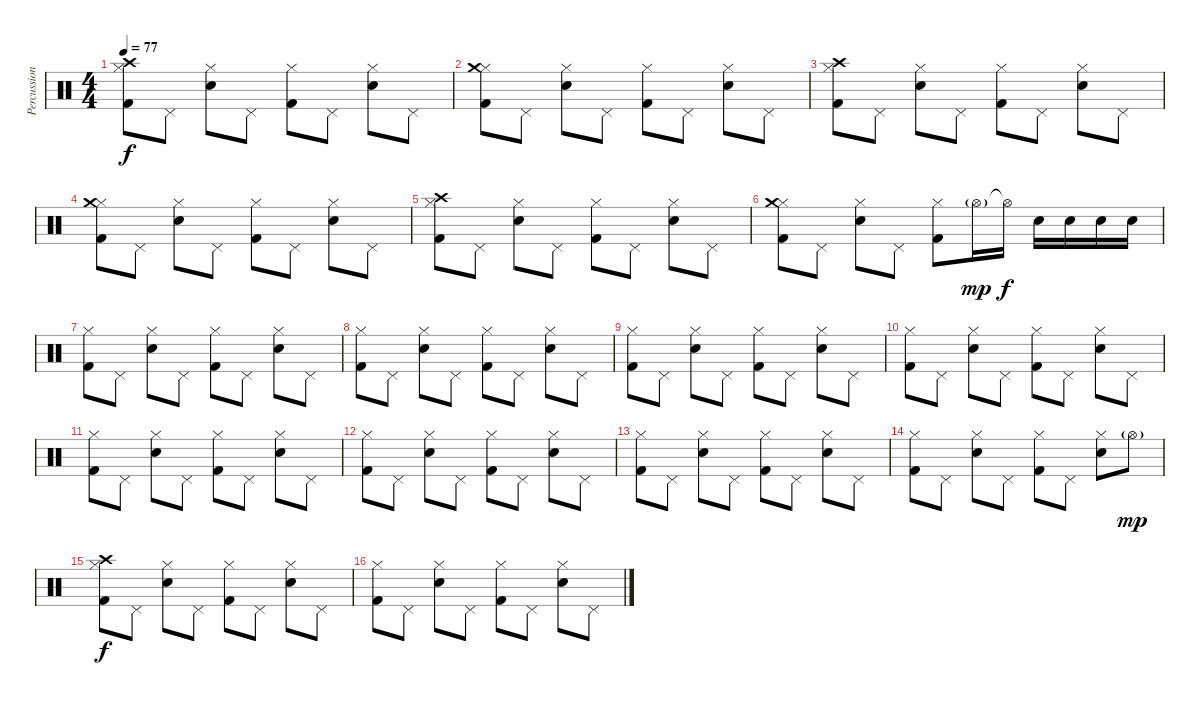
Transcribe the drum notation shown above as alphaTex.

\track ("Percussions" "Percussion") {instrument percussion}
\staff {score}
\articulation defaults
\ts (4 4)
\tempo 77
\clef neutral
\ks c
("Hi-Hat (closed)" "Crash high (hit)" "Kick (hit) 2").8{dy f} "Pedal Hi-Hat (hit)".8 ("Hi-Hat (closed)" "Snare (hit) 2").8 "Pedal Hi-Hat (hit)".8 ("Hi-Hat (closed)" "Kick (hit) 2").8 "Pedal Hi-Hat (hit)".8 ("Hi-Hat (closed)" "Snare (hit) 2").8 "Pedal Hi-Hat (hit)".8 |
("Hi-Hat (closed)" "Crash medium (hit)" "Kick (hit) 2").8 "Pedal Hi-Hat (hit)".8 ("Hi-Hat (closed)" "Snare (hit) 2").8 "Pedal Hi-Hat (hit)".8 ("Hi-Hat (closed)" "Kick (hit) 2").8 "Pedal Hi-Hat (hit)".8 ("Hi-Hat (closed)" "Snare (hit) 2").8 "Pedal Hi-Hat (hit)".8 |
("Hi-Hat (closed)" "Crash high (hit)" "Kick (hit) 2").8 "Pedal Hi-Hat (hit)".8 ("Hi-Hat (closed)" "Snare (hit) 2").8 "Pedal Hi-Hat (hit)".8 ("Hi-Hat (closed)" "Kick (hit) 2").8 "Pedal Hi-Hat (hit)".8 ("Hi-Hat (closed)" "Snare (hit) 2").8 "Pedal Hi-Hat (hit)".8 |
("Hi-Hat (closed)" "Crash medium (hit)" "Kick (hit) 2").8 "Pedal Hi-Hat (hit)".8 ("Hi-Hat (closed)" "Snare (hit) 2").8 "Pedal Hi-Hat (hit)".8 ("Hi-Hat (closed)" "Kick (hit) 2").8 "Pedal Hi-Hat (hit)".8 ("Hi-Hat (closed)" "Snare (hit) 2").8 "Pedal Hi-Hat (hit)".8 |
("Hi-Hat (closed)" "Crash high (hit)" "Kick (hit) 2").8 "Pedal Hi-Hat (hit)".8 ("Hi-Hat (closed)" "Snare (hit) 2").8 "Pedal Hi-Hat (hit)".8 ("Hi-Hat (closed)" "Kick (hit) 2").8 "Pedal Hi-Hat (hit)".8 ("Hi-Hat (closed)" "Snare (hit) 2").8 "Pedal Hi-Hat (hit)".8 |
("Hi-Hat (closed)" "Crash medium (hit)" "Kick (hit) 2").8 "Pedal Hi-Hat (hit)".8 ("Hi-Hat (closed)" "Snare (hit) 2").8 "Pedal Hi-Hat (hit)".8 ("Hi-Hat (closed)" "Kick (hit) 2").8 "Hi-Hat (open)"{g}.16{dy mp} "Hi-Hat (open)"{t}.16{dy f} "Snare (hit) 2".16 "Snare (hit) 2".16 "Snare (hit) 2".16 "Snare (hit) 2".16 |
("Hi-Hat (closed)" "Kick (hit) 2").8 "Pedal Hi-Hat (hit)".8 ("Hi-Hat (closed)" "Snare (hit) 2").8 "Pedal Hi-Hat (hit)".8 ("Hi-Hat (closed)" "Kick (hit) 2").8 "Pedal Hi-Hat (hit)".8 ("Hi-Hat (closed)" "Snare (hit) 2").8 "Pedal Hi-Hat (hit)".8 |
("Hi-Hat (closed)" "Kick (hit) 2").8 "Pedal Hi-Hat (hit)".8 ("Hi-Hat (closed)" "Snare (hit) 2").8 "Pedal Hi-Hat (hit)".8 ("Hi-Hat (closed)" "Kick (hit) 2").8 "Pedal Hi-Hat (hit)".8 ("Hi-Hat (closed)" "Snare (hit) 2").8 "Pedal Hi-Hat (hit)".8 |
("Hi-Hat (closed)" "Kick (hit) 2").8 "Pedal Hi-Hat (hit)".8 ("Hi-Hat (closed)" "Snare (hit) 2").8 "Pedal Hi-Hat (hit)".8 ("Hi-Hat (closed)" "Kick (hit) 2").8 "Pedal Hi-Hat (hit)".8 ("Hi-Hat (closed)" "Snare (hit) 2").8 "Pedal Hi-Hat (hit)".8 |
("Hi-Hat (closed)" "Kick (hit) 2").8 "Pedal Hi-Hat (hit)".8 ("Hi-Hat (closed)" "Snare (hit) 2").8 "Pedal Hi-Hat (hit)".8 ("Hi-Hat (closed)" "Kick (hit) 2").8 "Pedal Hi-Hat (hit)".8 ("Hi-Hat (closed)" "Snare (hit) 2").8 "Pedal Hi-Hat (hit)".8 |
("Hi-Hat (closed)" "Kick (hit) 2").8 "Pedal Hi-Hat (hit)".8 ("Hi-Hat (closed)" "Snare (hit) 2").8 "Pedal Hi-Hat (hit)".8 ("Hi-Hat (closed)" "Kick (hit) 2").8 "Pedal Hi-Hat (hit)".8 ("Hi-Hat (closed)" "Snare (hit) 2").8 "Pedal Hi-Hat (hit)".8 |
("Hi-Hat (closed)" "Kick (hit) 2").8 "Pedal Hi-Hat (hit)".8 ("Hi-Hat (closed)" "Snare (hit) 2").8 "Pedal Hi-Hat (hit)".8 ("Hi-Hat (closed)" "Kick (hit) 2").8 "Pedal Hi-Hat (hit)".8 ("Hi-Hat (closed)" "Snare (hit) 2").8 "Pedal Hi-Hat (hit)".8 |
("Hi-Hat (closed)" "Kick (hit) 2").8 "Pedal Hi-Hat (hit)".8 ("Hi-Hat (closed)" "Snare (hit) 2").8 "Pedal Hi-Hat (hit)".8 ("Hi-Hat (closed)" "Kick (hit) 2").8 "Pedal Hi-Hat (hit)".8 ("Hi-Hat (closed)" "Snare (hit) 2").8 "Pedal Hi-Hat (hit)".8 |
("Hi-Hat (closed)" "Kick (hit) 2").8 "Pedal Hi-Hat (hit)".8 ("Hi-Hat (closed)" "Snare (hit) 2").8 "Pedal Hi-Hat (hit)".8 ("Hi-Hat (closed)" "Kick (hit) 2").8 "Pedal Hi-Hat (hit)".8 ("Hi-Hat (closed)" "Snare (hit) 2").8 "Hi-Hat (open)"{g}.8{dy mp} |
("Hi-Hat (closed)" "Crash high (hit)" "Kick (hit) 2").8{dy f} "Pedal Hi-Hat (hit)".8 ("Hi-Hat (closed)" "Snare (hit) 2").8 "Pedal Hi-Hat (hit)".8 ("Hi-Hat (closed)" "Kick (hit) 2").8 "Pedal Hi-Hat (hit)".8 ("Hi-Hat (closed)" "Snare (hit) 2").8 "Pedal Hi-Hat (hit)".8 |
("Hi-Hat (closed)" "Kick (hit) 2").8 "Pedal Hi-Hat (hit)".8 ("Hi-Hat (closed)" "Snare (hit) 2").8 "Pedal Hi-Hat (hit)".8 ("Hi-Hat (closed)" "Kick (hit) 2").8 "Pedal Hi-Hat (hit)".8 ("Hi-Hat (closed)" "Snare (hit) 2").8 "Pedal Hi-Hat (hit)".8
